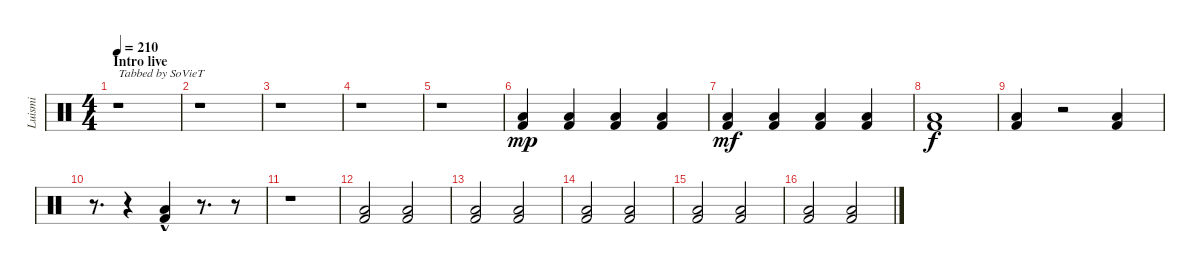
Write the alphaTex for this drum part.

\track ("Luismi" "Luismi") {instrument percussion}
\staff {score}
\articulation defaults
\ts (4 4)
\section ("" "Intro live")
\tempo 210
\tempo 250
\tempo 210
\clef neutral
\ks c
r.1{txt "Tabbed by SoVieT" dy mp} |
r.1 |
r.1 |
r.1 |
r.1 |
("Low Floor Tom (hit)" "Kick (hit) 2").4 ("Low Floor Tom (hit)" "Kick (hit) 2").4 ("Low Floor Tom (hit)" "Kick (hit) 2").4 ("Low Floor Tom (hit)" "Kick (hit) 2").4 |
("Low Floor Tom (hit)" "Kick (hit) 2").4{dy mf} ("Low Floor Tom (hit)" "Kick (hit) 2").4 ("Low Floor Tom (hit)" "Kick (hit) 2").4 ("Low Floor Tom (hit)" "Kick (hit) 2").4 |
("Low Floor Tom (hit)" "Kick (hit) 2").1{dy f} |
("Low Floor Tom (hit)" "Kick (hit) 2").4 r.2 ("Low Floor Tom (hit)" "Kick (hit) 2").4 |
r.8{d} r.4 ("Low Floor Tom (hit)"{hac} "Kick (hit) 2").4 r.8{d} r.8 |
r.1 |
("Low Floor Tom (hit)" "Kick (hit) 2").2 ("Low Floor Tom (hit)" "Kick (hit) 2").2 |
("Low Floor Tom (hit)" "Kick (hit) 2").2 ("Low Floor Tom (hit)" "Kick (hit) 2").2 |
("Low Floor Tom (hit)" "Kick (hit) 2").2 ("Low Floor Tom (hit)" "Kick (hit) 2").2 |
("Low Floor Tom (hit)" "Kick (hit) 2").2 ("Low Floor Tom (hit)" "Kick (hit) 2").2 |
("Low Floor Tom (hit)" "Kick (hit) 2").2 ("Low Floor Tom (hit)" "Kick (hit) 2").2
